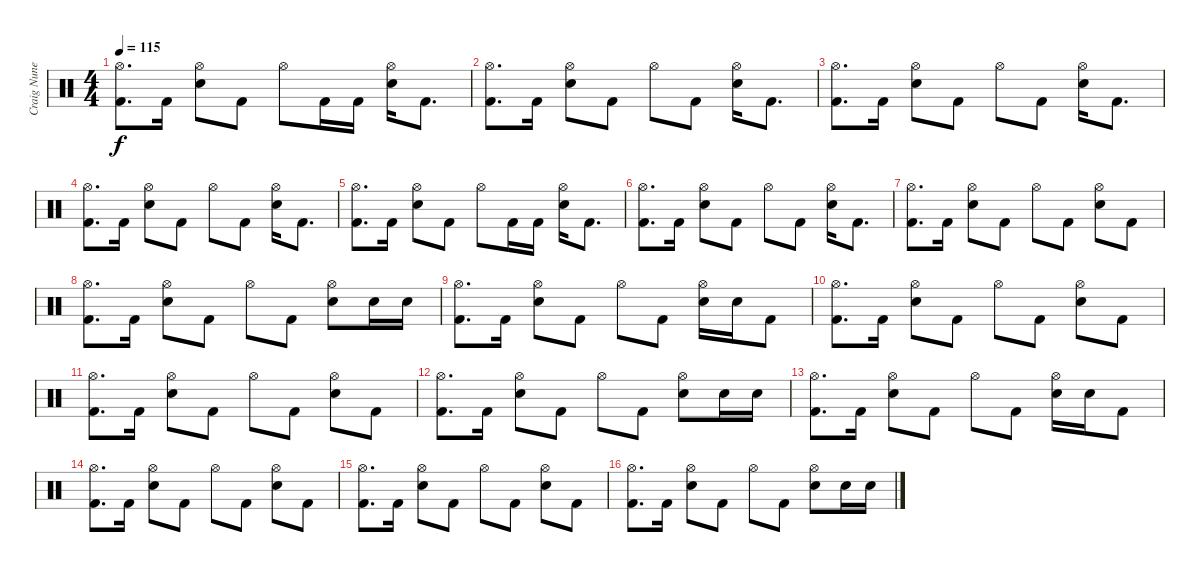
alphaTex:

\track ("Craig Nunenmacher" "Craig Nune") {instrument percussion}
\staff {score}
\articulation defaults
\ts (4 4)
\tempo 115
\clef neutral
\ks c
("Hi-Hat (open)" "Kick (hit) 2").8{d dy f} "Kick (hit) 2".16 ("Hi-Hat (open)" "Snare (hit) 2").8 "Kick (hit) 2".8 "Hi-Hat (open)".8 "Kick (hit) 2".16 "Kick (hit) 2".16 ("Hi-Hat (open)" "Snare (hit) 2").16 "Kick (hit) 2".8{d} |
("Hi-Hat (open)" "Kick (hit) 2").8{d} "Kick (hit) 2".16 ("Hi-Hat (open)" "Snare (hit) 2").8 "Kick (hit) 2".8 "Hi-Hat (open)".8 "Kick (hit) 2".8 ("Hi-Hat (open)" "Snare (hit) 2").16 "Kick (hit) 2".8{d} |
("Hi-Hat (open)" "Kick (hit) 2").8{d} "Kick (hit) 2".16 ("Hi-Hat (open)" "Snare (hit) 2").8 "Kick (hit) 2".8 "Hi-Hat (open)".8 "Kick (hit) 2".8 ("Hi-Hat (open)" "Snare (hit) 2").16 "Kick (hit) 2".8{d} |
("Hi-Hat (open)" "Kick (hit) 2").8{d} "Kick (hit) 2".16 ("Hi-Hat (open)" "Snare (hit) 2").8 "Kick (hit) 2".8 "Hi-Hat (open)".8 "Kick (hit) 2".8 ("Hi-Hat (open)" "Snare (hit) 2").16 "Kick (hit) 2".8{d} |
("Hi-Hat (open)" "Kick (hit) 2").8{d} "Kick (hit) 2".16 ("Hi-Hat (open)" "Snare (hit) 2").8 "Kick (hit) 2".8 "Hi-Hat (open)".8 "Kick (hit) 2".16 "Kick (hit) 2".16 ("Hi-Hat (open)" "Snare (hit) 2").16 "Kick (hit) 2".8{d} |
("Hi-Hat (open)" "Kick (hit) 2").8{d} "Kick (hit) 2".16 ("Hi-Hat (open)" "Snare (hit) 2").8 "Kick (hit) 2".8 "Hi-Hat (open)".8 "Kick (hit) 2".8 ("Hi-Hat (open)" "Snare (hit) 2").16 "Kick (hit) 2".8{d} |
("Hi-Hat (open)" "Kick (hit) 2").8{d} "Kick (hit) 2".16 ("Hi-Hat (open)" "Snare (hit) 2").8 "Kick (hit) 2".8 "Hi-Hat (open)".8 "Kick (hit) 2".8 ("Hi-Hat (open)" "Snare (hit) 2").8 "Kick (hit) 2".8 |
("Hi-Hat (open)" "Kick (hit) 2").8{d} "Kick (hit) 2".16 ("Hi-Hat (open)" "Snare (hit) 2").8 "Kick (hit) 2".8 "Hi-Hat (open)".8 "Kick (hit) 2".8 ("Hi-Hat (open)" "Snare (hit) 2").8 "Snare (hit) 2".16 "Snare (hit) 2".16 |
("Hi-Hat (open)" "Kick (hit) 2").8{d} "Kick (hit) 2".16 ("Hi-Hat (open)" "Snare (hit) 2").8 "Kick (hit) 2".8 "Hi-Hat (open)".8 "Kick (hit) 2".8 ("Hi-Hat (open)" "Snare (hit) 2").16 "Snare (hit) 2".16 "Kick (hit) 2".8 |
("Hi-Hat (open)" "Kick (hit) 2").8{d} "Kick (hit) 2".16 ("Hi-Hat (open)" "Snare (hit) 2").8 "Kick (hit) 2".8 "Hi-Hat (open)".8 "Kick (hit) 2".8 ("Hi-Hat (open)" "Snare (hit) 2").8 "Kick (hit) 2".8 |
("Hi-Hat (open)" "Kick (hit) 2").8{d} "Kick (hit) 2".16 ("Hi-Hat (open)" "Snare (hit) 2").8 "Kick (hit) 2".8 "Hi-Hat (open)".8 "Kick (hit) 2".8 ("Hi-Hat (open)" "Snare (hit) 2").8 "Kick (hit) 2".8 |
("Hi-Hat (open)" "Kick (hit) 2").8{d} "Kick (hit) 2".16 ("Hi-Hat (open)" "Snare (hit) 2").8 "Kick (hit) 2".8 "Hi-Hat (open)".8 "Kick (hit) 2".8 ("Hi-Hat (open)" "Snare (hit) 2").8 "Snare (hit) 2".16 "Snare (hit) 2".16 |
("Hi-Hat (open)" "Kick (hit) 2").8{d} "Kick (hit) 2".16 ("Hi-Hat (open)" "Snare (hit) 2").8 "Kick (hit) 2".8 "Hi-Hat (open)".8 "Kick (hit) 2".8 ("Hi-Hat (open)" "Snare (hit) 2").16 "Snare (hit) 2".16 "Kick (hit) 2".8 |
("Hi-Hat (open)" "Kick (hit) 2").8{d} "Kick (hit) 2".16 ("Hi-Hat (open)" "Snare (hit) 2").8 "Kick (hit) 2".8 "Hi-Hat (open)".8 "Kick (hit) 2".8 ("Hi-Hat (open)" "Snare (hit) 2").8 "Kick (hit) 2".8 |
("Hi-Hat (open)" "Kick (hit) 2").8{d} "Kick (hit) 2".16 ("Hi-Hat (open)" "Snare (hit) 2").8 "Kick (hit) 2".8 "Hi-Hat (open)".8 "Kick (hit) 2".8 ("Hi-Hat (open)" "Snare (hit) 2").8 "Kick (hit) 2".8 |
("Hi-Hat (open)" "Kick (hit) 2").8{d} "Kick (hit) 2".16 ("Hi-Hat (open)" "Snare (hit) 2").8 "Kick (hit) 2".8 "Hi-Hat (open)".8 "Kick (hit) 2".8 ("Hi-Hat (open)" "Snare (hit) 2").8 "Snare (hit) 2".16 "Snare (hit) 2".16
